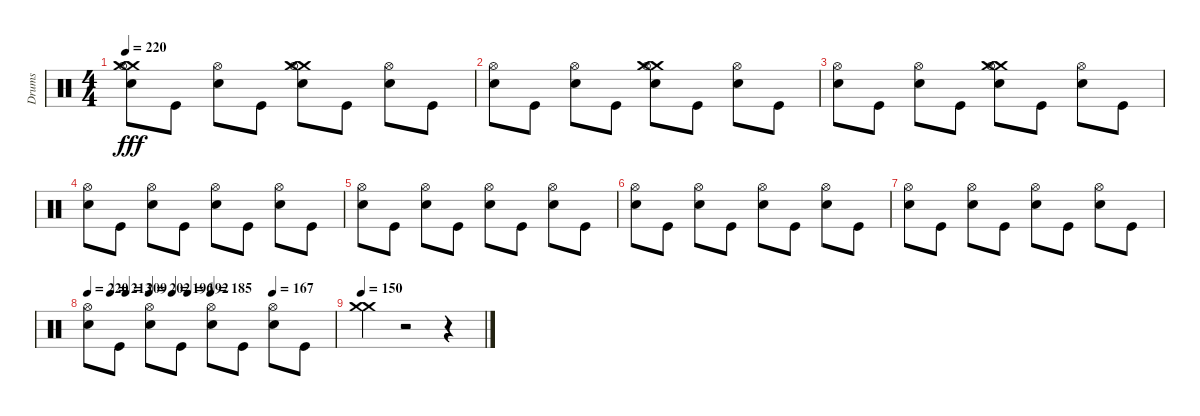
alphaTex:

\track ("Drums" "Drums") {instrument percussion}
\staff {score}
\articulation defaults
\ts (4 4)
\tempo 220
\clef neutral
\ks c
("Snare (hit) 2" "Crash medium (hit)" "Crash medium (hit)" "Hi-Hat (open)").8{dy fff} "Kick (hit)".8 ("Snare (hit) 2" "Hi-Hat (open)").8 "Kick (hit)".8 ("Crash medium (hit)" "Crash medium (hit)" "Snare (hit) 2" "Hi-Hat (open)").8 "Kick (hit)".8 ("Snare (hit) 2" "Hi-Hat (open)").8 "Kick (hit)".8 |
("Snare (hit) 2" "Hi-Hat (open)").8 "Kick (hit)".8 ("Snare (hit) 2" "Hi-Hat (open)").8 "Kick (hit)".8 ("Crash medium (hit)" "Crash medium (hit)" "Snare (hit) 2" "Hi-Hat (open)").8 "Kick (hit)".8 ("Snare (hit) 2" "Hi-Hat (open)").8 "Kick (hit)".8 |
("Snare (hit) 2" "Hi-Hat (open)").8 "Kick (hit)".8 ("Snare (hit) 2" "Hi-Hat (open)").8 "Kick (hit)".8 ("Crash medium (hit)" "Crash medium (hit)" "Snare (hit) 2" "Hi-Hat (open)").8 "Kick (hit)".8 ("Snare (hit) 2" "Hi-Hat (open)").8 "Kick (hit)".8 |
("Snare (hit) 2" "Hi-Hat (open)").8 "Kick (hit)".8 ("Snare (hit) 2" "Hi-Hat (open)").8 "Kick (hit)".8 ("Snare (hit) 2" "Hi-Hat (open)").8 "Kick (hit)".8 ("Snare (hit) 2" "Hi-Hat (open)").8 "Kick (hit)".8 |
("Snare (hit) 2" "Hi-Hat (open)").8 "Kick (hit)".8 ("Hi-Hat (open)" "Snare (hit) 2").8 "Kick (hit)".8 ("Snare (hit) 2" "Hi-Hat (open)").8 "Kick (hit)".8 ("Hi-Hat (open)" "Snare (hit) 2").8 "Kick (hit)".8 |
("Snare (hit) 2" "Hi-Hat (open)").8 "Kick (hit)".8 ("Snare (hit) 2" "Hi-Hat (open)").8 "Kick (hit)".8 ("Snare (hit) 2" "Hi-Hat (open)").8 "Kick (hit)".8 ("Snare (hit) 2" "Hi-Hat (open)").8 "Kick (hit)".8 |
("Snare (hit) 2" "Hi-Hat (open)").8 "Kick (hit)".8 ("Hi-Hat (open)" "Snare (hit) 2").8 "Kick (hit)".8 ("Snare (hit) 2" "Hi-Hat (open)").8 "Kick (hit)".8 ("Hi-Hat (open)" "Snare (hit) 2").8 "Kick (hit)".8 |
\tempo 220
\tempo (213 0.09375)
\tempo (209 0.15625)
\tempo (202 0.25)
\tempo (196 0.34375)
\tempo (192 0.40625)
\tempo (185 0.5)
\tempo (167 0.75)
("Snare (hit) 2" "Hi-Hat (open)").8 "Kick (hit)".8 ("Snare (hit) 2" "Hi-Hat (open)").8 "Kick (hit)".8 ("Snare (hit) 2" "Hi-Hat (open)").8 "Kick (hit)".8 ("Snare (hit) 2" "Hi-Hat (open)").8 "Kick (hit)".8 |
\tempo 150
("Crash medium (hit)" "Crash medium (hit)").4 r.2 r.4
